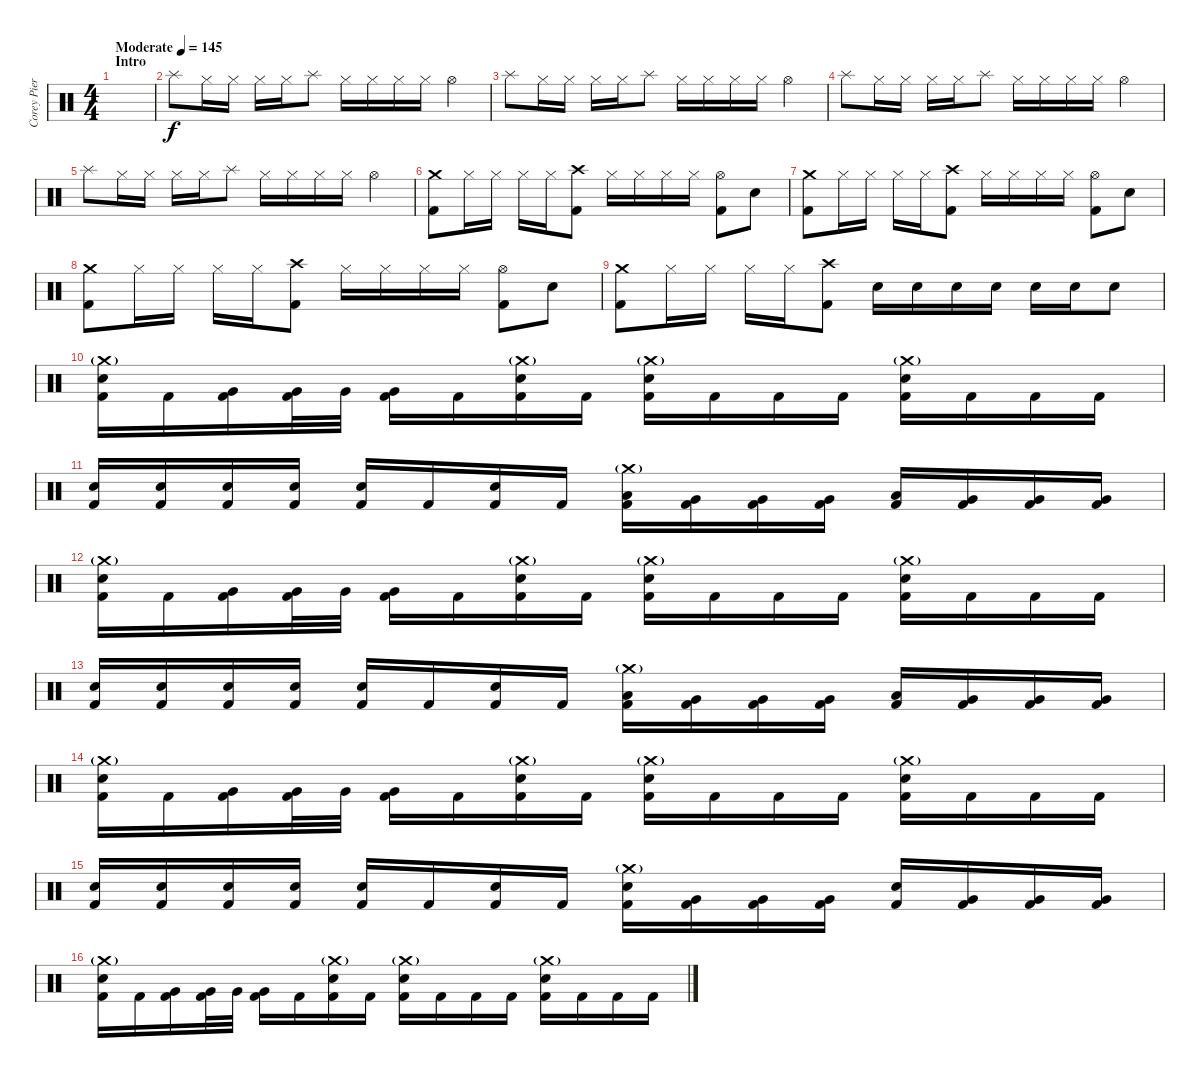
\track ("Corey Pierce" "Corey Pier") {instrument percussion}
\staff {score}
\articulation defaults
\ts (4 4)
\section ("" "Intro")
\tempo (145 "Moderate")
\clef neutral
\ks c
|
"Splash (hit)".8 "Hi-Hat (closed)".16 "Hi-Hat (closed)".16 "Hi-Hat (closed)".16 "Hi-Hat (closed)".16 "Splash (hit)".8 "Hi-Hat (closed)".16 "Hi-Hat (closed)".16 "Hi-Hat (closed)".16 "Hi-Hat (closed)".16 "Hi-Hat (open)".4 |
"Splash (hit)".8 "Hi-Hat (closed)".16 "Hi-Hat (closed)".16 "Hi-Hat (closed)".16 "Hi-Hat (closed)".16 "Splash (hit)".8 "Hi-Hat (closed)".16 "Hi-Hat (closed)".16 "Hi-Hat (closed)".16 "Hi-Hat (closed)".16 "Hi-Hat (open)".4 |
"Splash (hit)".8 "Hi-Hat (closed)".16 "Hi-Hat (closed)".16 "Hi-Hat (closed)".16 "Hi-Hat (closed)".16 "Splash (hit)".8 "Hi-Hat (closed)".16 "Hi-Hat (closed)".16 "Hi-Hat (closed)".16 "Hi-Hat (closed)".16 "Hi-Hat (open)".4 |
"Splash (hit)".8 "Hi-Hat (closed)".16 "Hi-Hat (closed)".16 "Hi-Hat (closed)".16 "Hi-Hat (closed)".16 "Splash (hit)".8 "Hi-Hat (closed)".16 "Hi-Hat (closed)".16 "Hi-Hat (closed)".16 "Hi-Hat (closed)".16 "Hi-Hat (open)".4 |
("Crash medium (hit)" "Kick (hit) 2").8 "Hi-Hat (closed)".16 "Hi-Hat (closed)".16 "Hi-Hat (closed)".16 "Hi-Hat (closed)".16 ("Crash high (hit)" "Kick (hit) 2").8 "Hi-Hat (closed)".16 "Hi-Hat (closed)".16 "Hi-Hat (closed)".16 "Hi-Hat (closed)".16 ("Hi-Hat (open)" "Kick (hit) 2").8 "Electric Snare (hit)".8 |
("Crash medium (hit)" "Kick (hit) 2").8 "Hi-Hat (closed)".16 "Hi-Hat (closed)".16 "Hi-Hat (closed)".16 "Hi-Hat (closed)".16 ("Crash high (hit)" "Kick (hit) 2").8 "Hi-Hat (closed)".16 "Hi-Hat (closed)".16 "Hi-Hat (closed)".16 "Hi-Hat (closed)".16 ("Hi-Hat (open)" "Kick (hit) 2").8 "Electric Snare (hit)".8 |
("Crash medium (hit)" "Kick (hit) 2").8 "Hi-Hat (closed)".16 "Hi-Hat (closed)".16 "Hi-Hat (closed)".16 "Hi-Hat (closed)".16 ("Crash high (hit)" "Kick (hit) 2").8 "Hi-Hat (closed)".16 "Hi-Hat (closed)".16 "Hi-Hat (closed)".16 "Hi-Hat (closed)".16 ("Hi-Hat (open)" "Kick (hit) 2").8 "Electric Snare (hit)".8 |
("Crash medium (hit)" "Kick (hit) 2").8 "Hi-Hat (closed)".16 "Hi-Hat (closed)".16 "Hi-Hat (closed)".16 "Hi-Hat (closed)".16 ("Crash high (hit)" "Kick (hit) 2").8 "Electric Snare (hit)".16 "Electric Snare (hit)".16 "Electric Snare (hit)".16 "Electric Snare (hit)".16 "Electric Snare (hit)".16 "Electric Snare (hit)".16 "Electric Snare (hit)".8 |
("Crash medium (hit)"{g} "Electric Snare (hit)" "Kick (hit) 2").16 "Kick (hit) 2".16 ("Very Low Tom (hit)" "Kick (hit) 2").16 ("Very Low Tom (hit)" "Kick (hit) 2").32 "Very Low Tom (hit)".32 ("Very Low Tom (hit)" "Kick (hit) 2").16 "Kick (hit) 2".16 ("Crash medium (hit)"{g} "Electric Snare (hit)" "Kick (hit) 2").16 "Kick (hit) 2".16 ("Crash medium (hit)"{g} "Electric Snare (hit)" "Kick (hit) 2").16 "Kick (hit) 2".16 "Kick (hit) 2".16 "Kick (hit) 2".16 ("Crash medium (hit)"{g} "Electric Snare (hit)" "Kick (hit) 2").16 "Kick (hit) 2".16 "Kick (hit) 2".16 "Kick (hit) 2".16 |
("Electric Snare (hit)" "Kick (hit) 2").16 ("Electric Snare (hit)" "Kick (hit) 2").16 ("Electric Snare (hit)" "Kick (hit) 2").16 ("Electric Snare (hit)" "Kick (hit) 2").16 ("Electric Snare (hit)" "Kick (hit) 2").16 "Kick (hit) 2".16 ("Electric Snare (hit)" "Kick (hit) 2").16 "Kick (hit) 2".16 ("Crash medium (hit)"{g} "Low Tom (hit)" "Kick (hit) 2").16 ("Very Low Tom (hit)" "Kick (hit) 2").16 ("Very Low Tom (hit)" "Kick (hit) 2").16 ("Very Low Tom (hit)" "Kick (hit) 2").16 ("Low Tom (hit)" "Kick (hit) 2").16 ("Very Low Tom (hit)" "Kick (hit) 2").16 ("Very Low Tom (hit)" "Kick (hit) 2").16 ("Very Low Tom (hit)" "Kick (hit) 2").16 |
("Crash medium (hit)"{g} "Electric Snare (hit)" "Kick (hit) 2").16 "Kick (hit) 2".16 ("Very Low Tom (hit)" "Kick (hit) 2").16 ("Very Low Tom (hit)" "Kick (hit) 2").32 "Very Low Tom (hit)".32 ("Very Low Tom (hit)" "Kick (hit) 2").16 "Kick (hit) 2".16 ("Crash medium (hit)"{g} "Electric Snare (hit)" "Kick (hit) 2").16 "Kick (hit) 2".16 ("Crash medium (hit)"{g} "Electric Snare (hit)" "Kick (hit) 2").16 "Kick (hit) 2".16 "Kick (hit) 2".16 "Kick (hit) 2".16 ("Crash medium (hit)"{g} "Electric Snare (hit)" "Kick (hit) 2").16 "Kick (hit) 2".16 "Kick (hit) 2".16 "Kick (hit) 2".16 |
("Electric Snare (hit)" "Kick (hit) 2").16 ("Electric Snare (hit)" "Kick (hit) 2").16 ("Electric Snare (hit)" "Kick (hit) 2").16 ("Electric Snare (hit)" "Kick (hit) 2").16 ("Electric Snare (hit)" "Kick (hit) 2").16 "Kick (hit) 2".16 ("Electric Snare (hit)" "Kick (hit) 2").16 "Kick (hit) 2".16 ("Crash medium (hit)"{g} "Low Tom (hit)" "Kick (hit) 2").16 ("Very Low Tom (hit)" "Kick (hit) 2").16 ("Very Low Tom (hit)" "Kick (hit) 2").16 ("Very Low Tom (hit)" "Kick (hit) 2").16 ("Low Tom (hit)" "Kick (hit) 2").16 ("Very Low Tom (hit)" "Kick (hit) 2").16 ("Very Low Tom (hit)" "Kick (hit) 2").16 ("Very Low Tom (hit)" "Kick (hit) 2").16 |
("Crash medium (hit)"{g} "Electric Snare (hit)" "Kick (hit) 2").16 "Kick (hit) 2".16 ("Very Low Tom (hit)" "Kick (hit) 2").16 ("Very Low Tom (hit)" "Kick (hit) 2").32 "Very Low Tom (hit)".32 ("Very Low Tom (hit)" "Kick (hit) 2").16 "Kick (hit) 2".16 ("Crash medium (hit)"{g} "Electric Snare (hit)" "Kick (hit) 2").16 "Kick (hit) 2".16 ("Crash medium (hit)"{g} "Electric Snare (hit)" "Kick (hit) 2").16 "Kick (hit) 2".16 "Kick (hit) 2".16 "Kick (hit) 2".16 ("Crash medium (hit)"{g} "Electric Snare (hit)" "Kick (hit) 2").16 "Kick (hit) 2".16 "Kick (hit) 2".16 "Kick (hit) 2".16 |
("Electric Snare (hit)" "Kick (hit) 2").16 ("Electric Snare (hit)" "Kick (hit) 2").16 ("Electric Snare (hit)" "Kick (hit) 2").16 ("Electric Snare (hit)" "Kick (hit) 2").16 ("Electric Snare (hit)" "Kick (hit) 2").16 "Kick (hit) 2".16 ("Electric Snare (hit)" "Kick (hit) 2").16 "Kick (hit) 2".16 ("Crash medium (hit)"{g} "Electric Snare (hit)" "Kick (hit) 2").16 ("Very Low Tom (hit)" "Kick (hit) 2").16 ("Very Low Tom (hit)" "Kick (hit) 2").16 ("Very Low Tom (hit)" "Kick (hit) 2").16 ("Electric Snare (hit)" "Kick (hit) 2").16 ("Very Low Tom (hit)" "Kick (hit) 2").16 ("Very Low Tom (hit)" "Kick (hit) 2").16 ("Very Low Tom (hit)" "Kick (hit) 2").16 |
("Crash medium (hit)"{g} "Electric Snare (hit)" "Kick (hit) 2").16 "Kick (hit) 2".16 ("Very Low Tom (hit)" "Kick (hit) 2").16 ("Very Low Tom (hit)" "Kick (hit) 2").32 "Very Low Tom (hit)".32 ("Very Low Tom (hit)" "Kick (hit) 2").16 "Kick (hit) 2".16 ("Crash medium (hit)"{g} "Electric Snare (hit)" "Kick (hit) 2").16 "Kick (hit) 2".16 ("Crash medium (hit)"{g} "Electric Snare (hit)" "Kick (hit) 2").16 "Kick (hit) 2".16 "Kick (hit) 2".16 "Kick (hit) 2".16 ("Crash medium (hit)"{g} "Electric Snare (hit)" "Kick (hit) 2").16 "Kick (hit) 2".16 "Kick (hit) 2".16 "Kick (hit) 2".16
